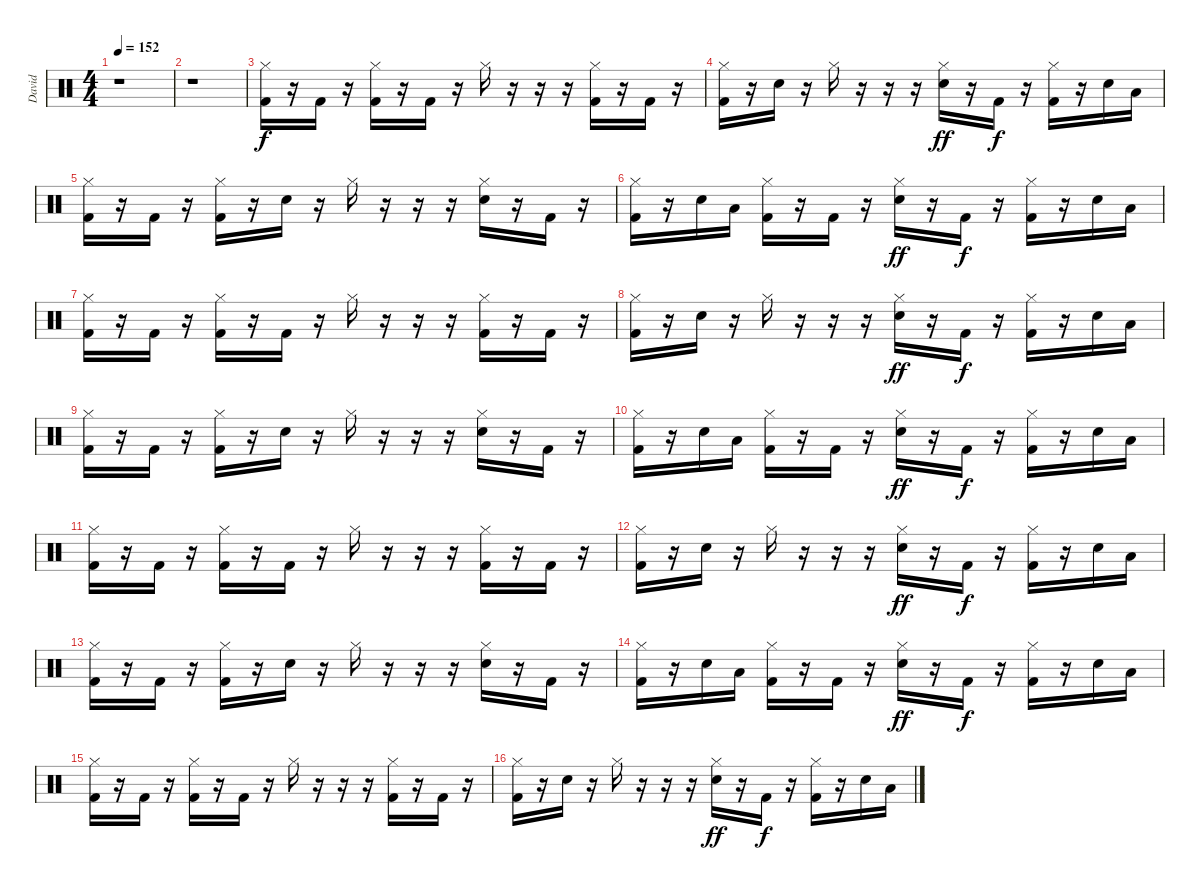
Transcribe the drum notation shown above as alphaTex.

\track ("David" "David") {instrument percussion}
\staff {score}
\articulation defaults
\ts (4 4)
\tempo 152
\clef neutral
\ks c
r.1{dy fff} |
r.1 |
("Hi-Hat (closed)" "Kick (hit) 2").16{dy f} r.16 "Kick (hit) 2".16 r.16 ("Hi-Hat (closed)" "Kick (hit) 2").16 r.16 "Kick (hit) 2".16 r.16 "Hi-Hat (closed)".16 r.16 r.16 r.16 ("Hi-Hat (closed)" "Kick (hit) 2").16 r.16 "Kick (hit) 2".16 r.16 |
("Hi-Hat (closed)" "Kick (hit) 2").16 r.16 "Electric Snare (hit)".16 r.16 "Hi-Hat (closed)".16 r.16 r.16 r.16 ("Hi-Hat (closed)" "Electric Snare (hit)").16{dy ff} r.16 "Kick (hit) 2".16{dy f} r.16 ("Hi-Hat (closed)" "Kick (hit) 2").16 r.16 "Electric Snare (hit)".16 "Low Tom (hit)".16 |
("Hi-Hat (closed)" "Kick (hit) 2").16 r.16 "Kick (hit) 2".16 r.16 ("Hi-Hat (closed)" "Kick (hit) 2").16 r.16 "Electric Snare (hit)".16 r.16 "Hi-Hat (closed)".16 r.16 r.16 r.16 ("Hi-Hat (closed)" "Electric Snare (hit)").16 r.16 "Kick (hit) 2".16 r.16 |
("Hi-Hat (closed)" "Kick (hit) 2").16 r.16 "Electric Snare (hit)".16 "Low Tom (hit)".16 ("Hi-Hat (closed)" "Kick (hit) 2").16 r.16 "Kick (hit) 2".16 r.16 ("Hi-Hat (closed)" "Electric Snare (hit)").16{dy ff} r.16 "Kick (hit) 2".16{dy f} r.16 ("Hi-Hat (closed)" "Kick (hit) 2").16 r.16 "Electric Snare (hit)".16 "Low Tom (hit)".16 |
("Hi-Hat (closed)" "Kick (hit) 2").16 r.16 "Kick (hit) 2".16 r.16 ("Hi-Hat (closed)" "Kick (hit) 2").16 r.16 "Kick (hit) 2".16 r.16 "Hi-Hat (closed)".16 r.16 r.16 r.16 ("Hi-Hat (closed)" "Kick (hit) 2").16 r.16 "Kick (hit) 2".16 r.16 |
("Hi-Hat (closed)" "Kick (hit) 2").16 r.16 "Electric Snare (hit)".16 r.16 "Hi-Hat (closed)".16 r.16 r.16 r.16 ("Hi-Hat (closed)" "Electric Snare (hit)").16{dy ff} r.16 "Kick (hit) 2".16{dy f} r.16 ("Hi-Hat (closed)" "Kick (hit) 2").16 r.16 "Electric Snare (hit)".16 "Low Tom (hit)".16 |
("Hi-Hat (closed)" "Kick (hit) 2").16 r.16 "Kick (hit) 2".16 r.16 ("Hi-Hat (closed)" "Kick (hit) 2").16 r.16 "Electric Snare (hit)".16 r.16 "Hi-Hat (closed)".16 r.16 r.16 r.16 ("Hi-Hat (closed)" "Electric Snare (hit)").16 r.16 "Kick (hit) 2".16 r.16 |
("Hi-Hat (closed)" "Kick (hit) 2").16 r.16 "Electric Snare (hit)".16 "Low Tom (hit)".16 ("Hi-Hat (closed)" "Kick (hit) 2").16 r.16 "Kick (hit) 2".16 r.16 ("Hi-Hat (closed)" "Electric Snare (hit)").16{dy ff} r.16 "Kick (hit) 2".16{dy f} r.16 ("Hi-Hat (closed)" "Kick (hit) 2").16 r.16 "Electric Snare (hit)".16 "Low Tom (hit)".16 |
("Hi-Hat (closed)" "Kick (hit) 2").16 r.16 "Kick (hit) 2".16 r.16 ("Hi-Hat (closed)" "Kick (hit) 2").16 r.16 "Kick (hit) 2".16 r.16 "Hi-Hat (closed)".16 r.16 r.16 r.16 ("Hi-Hat (closed)" "Kick (hit) 2").16 r.16 "Kick (hit) 2".16 r.16 |
("Hi-Hat (closed)" "Kick (hit) 2").16 r.16 "Electric Snare (hit)".16 r.16 "Hi-Hat (closed)".16 r.16 r.16 r.16 ("Hi-Hat (closed)" "Electric Snare (hit)").16{dy ff} r.16 "Kick (hit) 2".16{dy f} r.16 ("Hi-Hat (closed)" "Kick (hit) 2").16 r.16 "Electric Snare (hit)".16 "Low Tom (hit)".16 |
("Hi-Hat (closed)" "Kick (hit) 2").16 r.16 "Kick (hit) 2".16 r.16 ("Hi-Hat (closed)" "Kick (hit) 2").16 r.16 "Electric Snare (hit)".16 r.16 "Hi-Hat (closed)".16 r.16 r.16 r.16 ("Hi-Hat (closed)" "Electric Snare (hit)").16 r.16 "Kick (hit) 2".16 r.16 |
("Hi-Hat (closed)" "Kick (hit) 2").16 r.16 "Electric Snare (hit)".16 "Low Tom (hit)".16 ("Hi-Hat (closed)" "Kick (hit) 2").16 r.16 "Kick (hit) 2".16 r.16 ("Hi-Hat (closed)" "Electric Snare (hit)").16{dy ff} r.16 "Kick (hit) 2".16{dy f} r.16 ("Hi-Hat (closed)" "Kick (hit) 2").16 r.16 "Electric Snare (hit)".16 "Low Tom (hit)".16 |
("Hi-Hat (closed)" "Kick (hit) 2").16 r.16 "Kick (hit) 2".16 r.16 ("Hi-Hat (closed)" "Kick (hit) 2").16 r.16 "Kick (hit) 2".16 r.16 "Hi-Hat (closed)".16 r.16 r.16 r.16 ("Hi-Hat (closed)" "Kick (hit) 2").16 r.16 "Kick (hit) 2".16 r.16 |
("Hi-Hat (closed)" "Kick (hit) 2").16 r.16 "Electric Snare (hit)".16 r.16 "Hi-Hat (closed)".16 r.16 r.16 r.16 ("Hi-Hat (closed)" "Electric Snare (hit)").16{dy ff} r.16 "Kick (hit) 2".16{dy f} r.16 ("Hi-Hat (closed)" "Kick (hit) 2").16 r.16 "Electric Snare (hit)".16 "Low Tom (hit)".16
